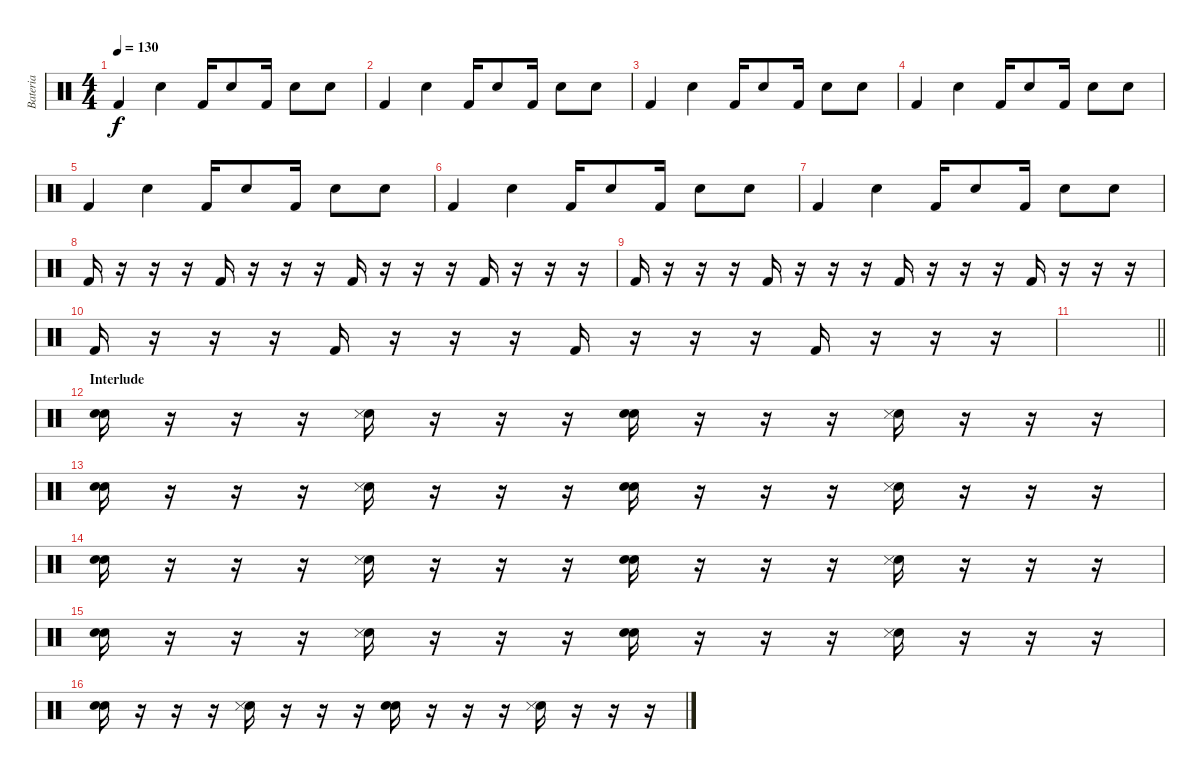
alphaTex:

\track ("Bateria" "Bateria") {instrument percussion}
\staff {score}
\articulation defaults
\ts (4 4)
\tempo 130
\clef neutral
\ks c "Kick (hit) 2".4{dy f} "Snare (hit) 2".4 "Kick (hit) 2".16 "Snare (hit) 2".8 "Kick (hit) 2".16 "Snare (hit) 2".8 "Snare (hit) 2".8
|
"Kick (hit) 2".4 "Snare (hit) 2".4 "Kick (hit) 2".16 "Snare (hit) 2".8 "Kick (hit) 2".16 "Snare (hit) 2".8 "Snare (hit) 2".8 |
"Kick (hit) 2".4 "Snare (hit) 2".4 "Kick (hit) 2".16 "Snare (hit) 2".8 "Kick (hit) 2".16 "Snare (hit) 2".8 "Snare (hit) 2".8 |
"Kick (hit) 2".4 "Snare (hit) 2".4 "Kick (hit) 2".16 "Snare (hit) 2".8 "Kick (hit) 2".16 "Snare (hit) 2".8 "Snare (hit) 2".8 |
"Kick (hit) 2".4 "Snare (hit) 2".4 "Kick (hit) 2".16 "Snare (hit) 2".8 "Kick (hit) 2".16 "Snare (hit) 2".8 "Snare (hit) 2".8 |
"Kick (hit) 2".4 "Snare (hit) 2".4 "Kick (hit) 2".16 "Snare (hit) 2".8 "Kick (hit) 2".16 "Snare (hit) 2".8 "Snare (hit) 2".8 |
"Kick (hit) 2".4 "Snare (hit) 2".4 "Kick (hit) 2".16 "Snare (hit) 2".8 "Kick (hit) 2".16 "Snare (hit) 2".8 "Snare (hit) 2".8 |
"Kick (hit) 2".16 r.16 r.16 r.16 "Kick (hit) 2".16 r.16 r.16 r.16 "Kick (hit) 2".16 r.16 r.16 r.16 "Kick (hit) 2".16 r.16 r.16 r.16 |
"Kick (hit) 2".16 r.16 r.16 r.16 "Kick (hit) 2".16 r.16 r.16 r.16 "Kick (hit) 2".16 r.16 r.16 r.16 "Kick (hit) 2".16 r.16 r.16 r.16 |
"Kick (hit) 2".16 r.16 r.16 r.16 "Kick (hit) 2".16 r.16 r.16 r.16 "Kick (hit) 2".16 r.16 r.16 r.16 "Kick (hit) 2".16 r.16 r.16 r.16 |
\barLineRight lightlight
|
\section ("" "Interlude")
("Snare (hit) 2" "Snare (hit) 2").16 r.16 r.16 r.16 ("Snare (hit) 2" "Snare (side stick) 3").16 r.16 r.16 r.16 ("Snare (hit) 2" "Snare (hit) 2").16 r.16 r.16 r.16 ("Snare (hit) 2" "Snare (side stick) 3").16 r.16 r.16 r.16 |
("Snare (hit) 2" "Snare (hit) 2").16 r.16 r.16 r.16 ("Snare (hit) 2" "Snare (side stick) 3").16 r.16 r.16 r.16 ("Snare (hit) 2" "Snare (hit) 2").16 r.16 r.16 r.16 ("Snare (hit) 2" "Snare (side stick) 3").16 r.16 r.16 r.16 |
("Snare (hit) 2" "Snare (hit) 2").16 r.16 r.16 r.16 ("Snare (hit) 2" "Snare (side stick) 3").16 r.16 r.16 r.16 ("Snare (hit) 2" "Snare (hit) 2").16 r.16 r.16 r.16 ("Snare (hit) 2" "Snare (side stick) 3").16 r.16 r.16 r.16 |
("Snare (hit) 2" "Snare (hit) 2").16 r.16 r.16 r.16 ("Snare (hit) 2" "Snare (side stick) 3").16 r.16 r.16 r.16 ("Snare (hit) 2" "Snare (hit) 2").16 r.16 r.16 r.16 ("Snare (hit) 2" "Snare (side stick) 3").16 r.16 r.16 r.16 |
("Snare (hit) 2" "Snare (hit) 2").16 r.16 r.16 r.16 ("Snare (hit) 2" "Snare (side stick) 3").16 r.16 r.16 r.16 ("Snare (hit) 2" "Snare (hit) 2").16 r.16 r.16 r.16 ("Snare (hit) 2" "Snare (side stick) 3").16 r.16 r.16 r.16
